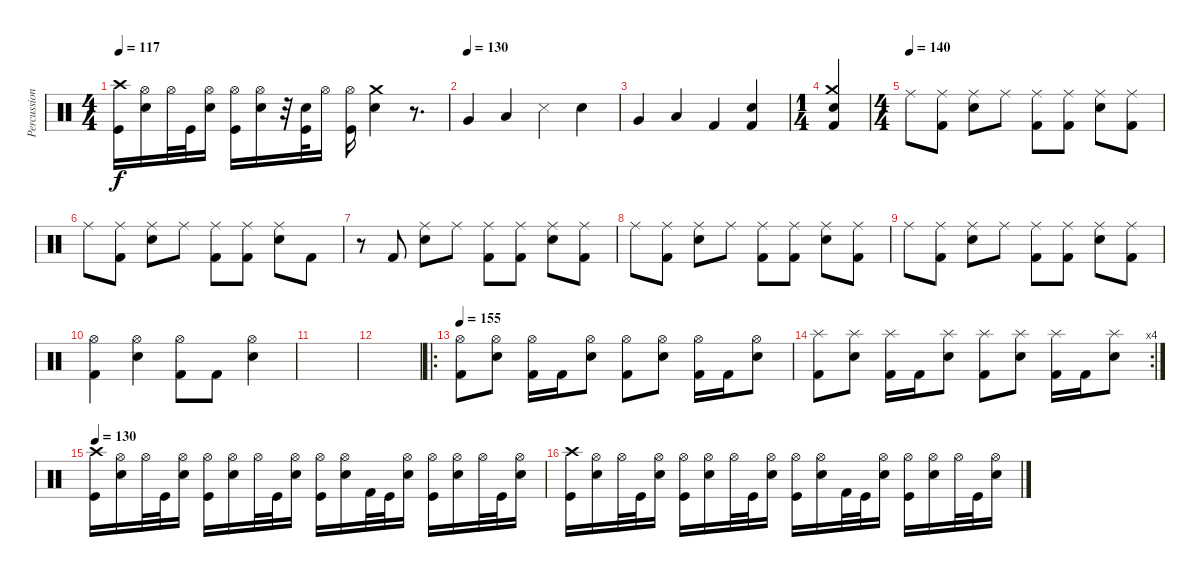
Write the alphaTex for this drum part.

\track ("Percussion" "Percussion") {instrument percussion}
\staff {score}
\articulation defaults
\ts (4 4)
\tempo 117
\clef neutral
\ks c
("Crash high (hit)" "Kick (hit)").16{dy f} ("Hi-Hat (open)" "Snare (hit) 2").16 "Hi-Hat (open)".32 "Kick (hit)".32 ("Hi-Hat (open)" "Snare (hit) 2").16 ("Hi-Hat (open)" "Kick (hit)").16 ("Hi-Hat (open)" "Snare (hit) 2").16 r.32 ("Snare (hit)"{x} "Kick (hit)"{x}).32 "Hi-Hat (open)"{x}.16 ("Hi-Hat (open)"{x} "Kick (hit)"{x}).16 ("Crash medium (hit)" "Snare (hit) 2").4 r.8{d} |
\tempo (130)
"Very Low Tom (hit)".4 "Low Tom (hit)".4 "Metronome (hit)".4 "Snare (hit) 2".4 |
"Very Low Tom (hit)".4 "Low Tom (hit)".4 "Kick (hit) 2".4 ("Snare (hit) 2" "Kick (hit) 2").4 |
\ts (1 4)
("Crash medium (hit)" "Snare (hit) 2" "Kick (hit) 2").4 |
\ts (4 4)
\tempo (140)
"Ride (middle)".8 ("Ride (middle)" "Kick (hit) 2").8 ("Ride (middle)" "Snare (hit) 2").8 "Ride (middle)".8 ("Ride (middle)" "Kick (hit) 2").8 ("Ride (middle)" "Kick (hit) 2").8 ("Ride (middle)" "Snare (hit) 2").8 ("Ride (middle)" "Kick (hit) 2").8 |
"Ride (middle)".8 ("Ride (middle)" "Kick (hit) 2").8 ("Ride (middle)" "Snare (hit) 2").8 "Ride (middle)".8 ("Ride (middle)" "Kick (hit) 2").8 ("Ride (middle)" "Kick (hit) 2").8 ("Ride (middle)" "Snare (hit) 2").8 "Kick (hit) 2".8 |
r.8 "Kick (hit) 2".8 ("Ride (middle)" "Snare (hit) 2").8 "Ride (middle)".8 ("Ride (middle)" "Kick (hit) 2").8 ("Ride (middle)" "Kick (hit) 2").8 ("Ride (middle)" "Snare (hit) 2").8 ("Ride (middle)" "Kick (hit) 2").8 |
"Ride (middle)".8 ("Ride (middle)" "Kick (hit) 2").8 ("Ride (middle)" "Snare (hit) 2").8 "Ride (middle)".8 ("Ride (middle)" "Kick (hit) 2").8 ("Ride (middle)" "Kick (hit) 2").8 ("Ride (middle)" "Snare (hit) 2").8 ("Ride (middle)" "Kick (hit) 2").8 |
"Ride (middle)".8 ("Ride (middle)" "Kick (hit) 2").8 ("Ride (middle)" "Snare (hit) 2").8 "Ride (middle)".8 ("Ride (middle)" "Kick (hit) 2").8 ("Ride (middle)" "Kick (hit) 2").8 ("Ride (middle)" "Snare (hit) 2").8 ("Ride (middle)" "Kick (hit) 2").8 |
("Hi-Hat (open)" "Kick (hit) 2").4 ("Hi-Hat (open)" "Snare (hit) 2").4 ("Hi-Hat (open)" "Kick (hit) 2").8 "Kick (hit) 2".8 ("Hi-Hat (open)" "Snare (hit) 2").4 |
|
|
\ro
\tempo 155
("Hi-Hat (open)" "Kick (hit) 2").8 ("Hi-Hat (open)" "Snare (hit) 2").8 ("Hi-Hat (open)" "Kick (hit) 2").16 "Kick (hit) 2".16 ("Hi-Hat (open)" "Snare (hit) 2").8 ("Hi-Hat (open)" "Kick (hit) 2").8 ("Hi-Hat (open)" "Snare (hit) 2").8 ("Hi-Hat (open)" "Kick (hit) 2").16 "Kick (hit) 2".16 ("Hi-Hat (open)" "Snare (hit) 2").8 |
\rc 4
("Splash (hit)" "Kick (hit) 2").8 ("Splash (hit)" "Snare (hit) 2").8 ("Splash (hit)" "Kick (hit) 2").16 "Kick (hit) 2".16 ("Splash (hit)" "Snare (hit) 2").8 ("Splash (hit)" "Kick (hit) 2").8 ("Splash (hit)" "Snare (hit) 2").8 ("Splash (hit)" "Kick (hit) 2").16 "Kick (hit) 2".16 ("Splash (hit)" "Snare (hit) 2").8 |
\tempo 130
("Crash high (hit)" "Kick (hit)").16 ("Hi-Hat (open)" "Snare (hit) 2").16 "Hi-Hat (open)".32 "Kick (hit)".32 ("Hi-Hat (open)" "Snare (hit) 2").16 ("Hi-Hat (open)" "Kick (hit)").16 ("Hi-Hat (open)" "Snare (hit) 2").16 "Hi-Hat (open)".32 "Kick (hit)".32 ("Hi-Hat (open)" "Snare (hit) 2").16 ("Hi-Hat (open)" "Kick (hit)").16 ("Hi-Hat (open)" "Snare (hit) 2").16 "Kick (hit) 2".32 "Kick (hit)".32 ("Hi-Hat (open)" "Snare (hit) 2").16 ("Hi-Hat (open)" "Kick (hit)").16 ("Hi-Hat (open)" "Snare (hit) 2").16 "Hi-Hat (open)".32 "Kick (hit)".32 ("Hi-Hat (open)" "Snare (hit) 2").16 |
("Crash high (hit)" "Kick (hit)").16 ("Hi-Hat (open)" "Snare (hit) 2").16 "Hi-Hat (open)".32 "Kick (hit)".32 ("Hi-Hat (open)" "Snare (hit) 2").16 ("Hi-Hat (open)" "Kick (hit)").16 ("Hi-Hat (open)" "Snare (hit) 2").16 "Hi-Hat (open)".32 "Kick (hit)".32 ("Hi-Hat (open)" "Snare (hit) 2").16 ("Hi-Hat (open)" "Kick (hit)").16 ("Hi-Hat (open)" "Snare (hit) 2").16 "Kick (hit) 2".32 "Kick (hit)".32 ("Hi-Hat (open)" "Snare (hit) 2").16 ("Hi-Hat (open)" "Kick (hit)").16 ("Hi-Hat (open)" "Snare (hit) 2").16 "Hi-Hat (open)".32 "Kick (hit)".32 ("Hi-Hat (open)" "Snare (hit) 2").16
